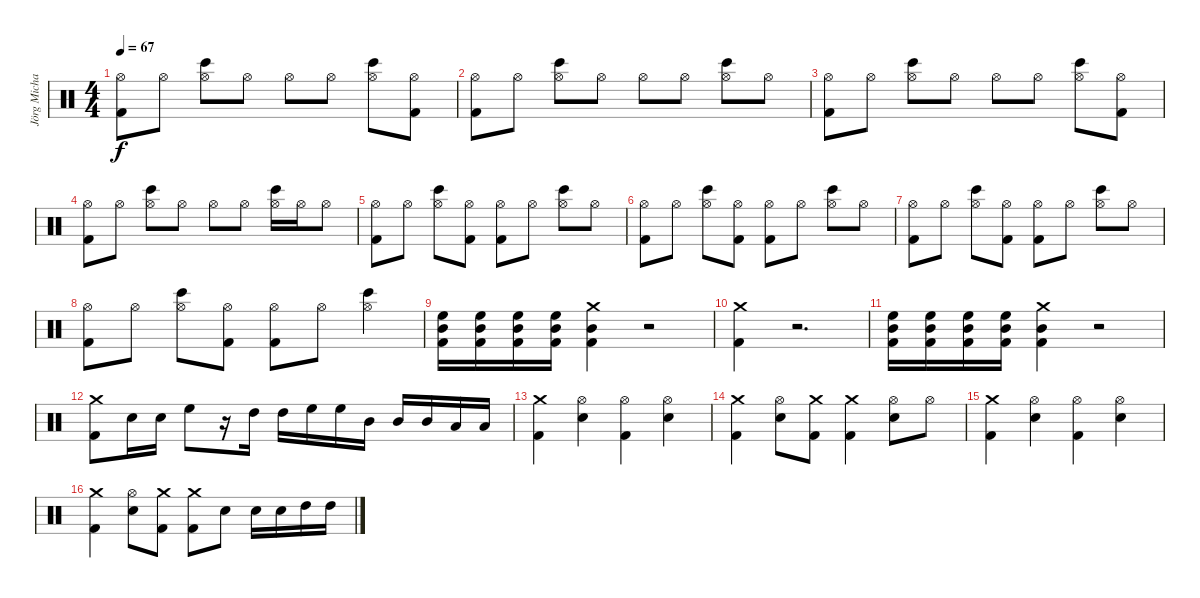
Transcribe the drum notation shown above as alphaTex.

\track ("Jörg Michael" "Jörg Micha") {instrument percussion}
\staff {score}
\articulation defaults
\ts (4 4)
\tempo 67
\clef neutral
\ks c
("Hi-Hat (open)" "Kick (hit) 2").8{dy f} "Hi-Hat (open)".8 ("Bongo High (hit)" "Hi-Hat (open)").8 "Hi-Hat (open)".8 "Hi-Hat (open)".8 "Hi-Hat (open)".8 ("Bongo High (hit)" "Hi-Hat (open)").8 ("Kick (hit) 2" "Hi-Hat (open)").8 |
("Hi-Hat (open)" "Kick (hit) 2").8 "Hi-Hat (open)".8 ("Bongo High (hit)" "Hi-Hat (open)").8 "Hi-Hat (open)".8 "Hi-Hat (open)".8 "Hi-Hat (open)".8 ("Bongo High (hit)" "Hi-Hat (open)").8 "Hi-Hat (open)".8 |
("Hi-Hat (open)" "Kick (hit) 2").8 "Hi-Hat (open)".8 ("Bongo High (hit)" "Hi-Hat (open)").8 "Hi-Hat (open)".8 "Hi-Hat (open)".8 "Hi-Hat (open)".8 ("Bongo High (hit)" "Hi-Hat (open)").8 ("Kick (hit) 2" "Hi-Hat (open)").8 |
("Hi-Hat (open)" "Kick (hit) 2").8 "Hi-Hat (open)".8 ("Bongo High (hit)" "Hi-Hat (open)").8 "Hi-Hat (open)".8 "Hi-Hat (open)".8 "Hi-Hat (open)".8 ("Bongo High (hit)" "Hi-Hat (open)").16 "Hi-Hat (open)".16 "Hi-Hat (open)".8 |
("Hi-Hat (open)" "Kick (hit) 2").8 "Hi-Hat (open)".8 ("Bongo High (hit)" "Hi-Hat (open)").8 ("Hi-Hat (open)" "Kick (hit) 2").8 ("Hi-Hat (open)" "Kick (hit) 2").8 "Hi-Hat (open)".8 ("Bongo High (hit)" "Hi-Hat (open)").8 "Hi-Hat (open)".8 |
("Hi-Hat (open)" "Kick (hit) 2").8 "Hi-Hat (open)".8 ("Bongo High (hit)" "Hi-Hat (open)").8 ("Hi-Hat (open)" "Kick (hit) 2").8 ("Hi-Hat (open)" "Kick (hit) 2").8 "Hi-Hat (open)".8 ("Bongo High (hit)" "Hi-Hat (open)").8 "Hi-Hat (open)".8 |
("Hi-Hat (open)" "Kick (hit) 2").8 "Hi-Hat (open)".8 ("Bongo High (hit)" "Hi-Hat (open)").8 ("Hi-Hat (open)" "Kick (hit) 2").8 ("Hi-Hat (open)" "Kick (hit) 2").8 "Hi-Hat (open)".8 ("Bongo High (hit)" "Hi-Hat (open)").8 "Hi-Hat (open)".8 |
("Kick (hit) 2" "Hi-Hat (open)").8 "Hi-Hat (open)".8 ("Bongo High (hit)" "Hi-Hat (open)").8 ("Kick (hit) 2" "Hi-Hat (open)").8 ("Kick (hit) 2" "Hi-Hat (open)").8 "Hi-Hat (open)".8 ("Bongo High (hit)" "Hi-Hat (open)").4 |
("Mid Tom (hit)" "High Floor Tom (hit)" "Kick (hit) 2").16 ("Mid Tom (hit)" "High Floor Tom (hit)" "Kick (hit) 2").16 ("Mid Tom (hit)" "High Floor Tom (hit)" "Kick (hit) 2").16 ("Mid Tom (hit)" "High Floor Tom (hit)" "Kick (hit) 2").16 ("Kick (hit) 2" "Crash medium (hit)" "Mid Tom (hit)").4 r.2 |
("Crash medium (hit)" "Kick (hit) 2").4 r.2{d} |
("Mid Tom (hit)" "High Floor Tom (hit)" "Kick (hit) 2").16 ("Mid Tom (hit)" "High Floor Tom (hit)" "Kick (hit) 2").16 ("Mid Tom (hit)" "High Floor Tom (hit)" "Kick (hit) 2").16 ("Mid Tom (hit)" "High Floor Tom (hit)" "Kick (hit) 2").16 ("Kick (hit) 2" "Crash medium (hit)" "Mid Tom (hit)").4 r.2 |
("Crash medium (hit)" "Kick (hit) 2").8 "Snare (hit) 2".16 "Snare (hit) 2".16 "High Floor Tom (hit)".8 r.16 "High Tom (hit)".16 "High Tom (hit)".16 "High Floor Tom (hit)".16 "High Floor Tom (hit)".16 "Mid Tom (hit)".16 "Mid Tom (hit)".16 "Mid Tom (hit)".16 "Low Tom (hit)".16 "Low Tom (hit)".16 |
("Kick (hit) 2" "Crash medium (hit)").4 ("Snare (hit) 2" "Hi-Hat (open)").4 ("Kick (hit) 2" "Hi-Hat (open)").4 ("Snare (hit) 2" "Hi-Hat (open)").4 |
("Kick (hit) 2" "Crash medium (hit)").4 ("Hi-Hat (open)" "Snare (hit) 2").8 ("Kick (hit) 2" "Crash medium (hit)").8 ("Crash medium (hit)" "Kick (hit) 2").4 ("Snare (hit) 2" "Hi-Hat (open)").8 "Hi-Hat (open)".8 |
("Kick (hit) 2" "Crash medium (hit)").4 ("Snare (hit) 2" "Hi-Hat (open)").4 ("Kick (hit) 2" "Hi-Hat (open)").4 ("Snare (hit) 2" "Hi-Hat (open)").4 |
("Kick (hit) 2" "Crash medium (hit)").4 ("Snare (hit) 2" "Hi-Hat (open)").8 ("Kick (hit) 2" "Crash medium (hit)").8 ("Kick (hit) 2" "Crash medium (hit)").8 "Snare (hit) 2".8 "Snare (hit) 2".16 "Snare (hit) 2".16 "High Tom (hit)".16 "High Tom (hit)".16
